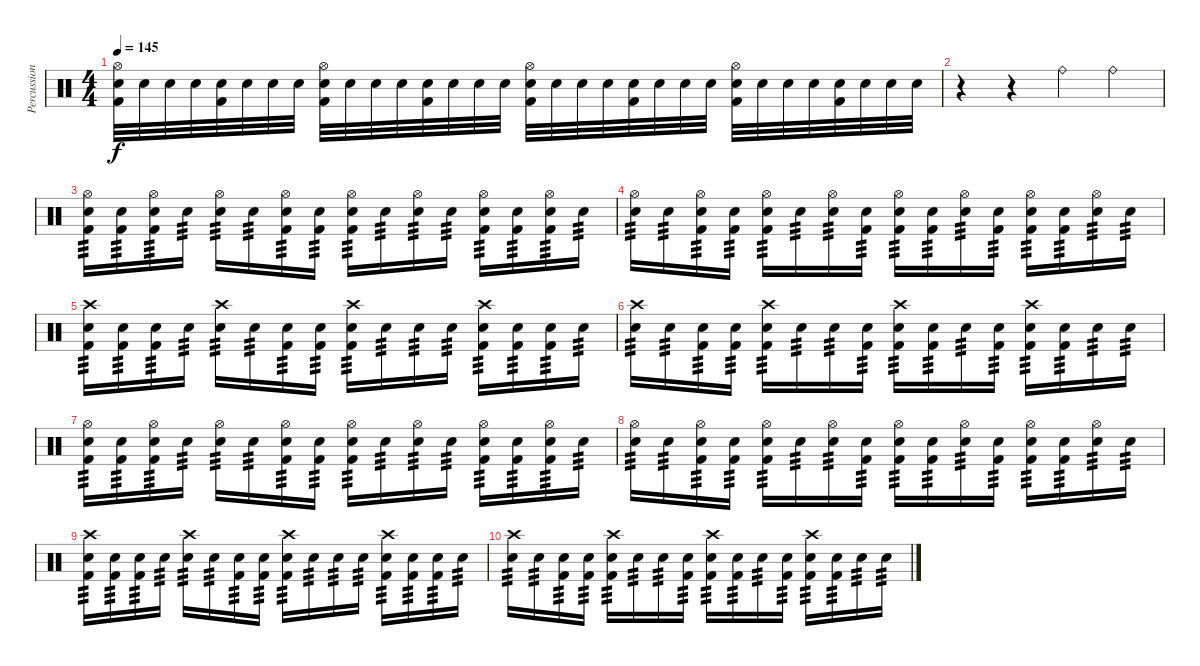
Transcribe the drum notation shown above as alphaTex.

\track ("Percussion" "Percussion") {instrument percussion}
\staff {score}
\articulation defaults
\ts (4 4)
\tempo 145
\clef neutral
\ks c
("Hi-Hat (open)" "Electric Snare (hit)" "Kick (hit) 2").32{dy f} "Electric Snare (hit)".32 "Electric Snare (hit)".32 "Electric Snare (hit)".32 ("Electric Snare (hit)" "Kick (hit) 2").32 "Electric Snare (hit)".32 "Electric Snare (hit)".32 "Electric Snare (hit)".32 ("Hi-Hat (open)" "Electric Snare (hit)" "Kick (hit) 2").32 "Electric Snare (hit)".32 "Electric Snare (hit)".32 "Electric Snare (hit)".32 ("Electric Snare (hit)" "Kick (hit) 2").32 "Electric Snare (hit)".32 "Electric Snare (hit)".32 "Electric Snare (hit)".32 ("Hi-Hat (open)" "Electric Snare (hit)" "Kick (hit) 2").32 "Electric Snare (hit)".32 "Electric Snare (hit)".32 "Electric Snare (hit)".32 ("Electric Snare (hit)" "Kick (hit) 2").32 "Electric Snare (hit)".32 "Electric Snare (hit)".32 "Electric Snare (hit)".32 ("Hi-Hat (open)" "Electric Snare (hit)" "Kick (hit) 2").32 "Electric Snare (hit)".32 "Electric Snare (hit)".32 "Electric Snare (hit)".32 ("Electric Snare (hit)" "Kick (hit) 2").32 "Electric Snare (hit)".32 "Electric Snare (hit)".32 "Electric Snare (hit)".32 |
r.4 r.4 "Ride (bell)".4 "Ride (bell)".4 |
("Hi-Hat (open)" "Electric Snare (hit)" "Kick (hit) 2").16{tp 3} ("Electric Snare (hit)" "Kick (hit) 2").16{tp 3} ("Hi-Hat (open)" "Electric Snare (hit)" "Kick (hit) 2").16{tp 3} "Electric Snare (hit)".16{tp 3} ("Hi-Hat (open)" "Electric Snare (hit)").16{tp 3} "Electric Snare (hit)".16{tp 3} ("Hi-Hat (open)" "Electric Snare (hit)" "Kick (hit) 2").16{tp 3} ("Electric Snare (hit)" "Kick (hit) 2").16{tp 3} ("Hi-Hat (open)" "Electric Snare (hit)" "Kick (hit) 2").16{tp 3} "Electric Snare (hit)".16{tp 3} ("Hi-Hat (open)" "Electric Snare (hit)").16{tp 3} "Electric Snare (hit)".16{tp 3} ("Hi-Hat (open)" "Electric Snare (hit)" "Kick (hit) 2").16{tp 3} ("Electric Snare (hit)" "Kick (hit) 2").16{tp 3} ("Hi-Hat (open)" "Electric Snare (hit)" "Kick (hit) 2").16{tp 3} "Electric Snare (hit)".16{tp 3} |
("Hi-Hat (open)" "Electric Snare (hit)").16{tp 3} "Electric Snare (hit)".16{tp 3} ("Hi-Hat (open)" "Electric Snare (hit)" "Kick (hit) 2").16{tp 3} ("Electric Snare (hit)" "Kick (hit) 2").16{tp 3} ("Hi-Hat (open)" "Electric Snare (hit)" "Kick (hit) 2").16{tp 3} "Electric Snare (hit)".16{tp 3} ("Hi-Hat (open)" "Electric Snare (hit)").16{tp 3} ("Electric Snare (hit)" "Kick (hit) 2").16{tp 3} ("Hi-Hat (open)" "Electric Snare (hit)" "Kick (hit) 2").16{tp 3} ("Electric Snare (hit)" "Kick (hit) 2").16{tp 3} ("Hi-Hat (open)" "Electric Snare (hit)").16{tp 3} ("Electric Snare (hit)" "Kick (hit) 2").16{tp 3} ("Hi-Hat (open)" "Electric Snare (hit)" "Kick (hit) 2").16{tp 3} ("Electric Snare (hit)" "Kick (hit) 2").16{tp 3} ("Hi-Hat (open)" "Electric Snare (hit)").16{tp 3} "Electric Snare (hit)".16{tp 3} |
("Crash high (hit)" "Electric Snare (hit)" "Kick (hit) 2").16{tp 3} ("Electric Snare (hit)" "Kick (hit) 2").16{tp 3} ("Electric Snare (hit)" "Kick (hit) 2").16{tp 3} "Electric Snare (hit)".16{tp 3} ("Crash high (hit)" "Electric Snare (hit)").16{tp 3} "Electric Snare (hit)".16{tp 3} ("Electric Snare (hit)" "Kick (hit) 2").16{tp 3} ("Electric Snare (hit)" "Kick (hit) 2").16{tp 3} ("Crash high (hit)" "Electric Snare (hit)" "Kick (hit) 2").16{tp 3} "Electric Snare (hit)".16{tp 3} "Electric Snare (hit)".16{tp 3} "Electric Snare (hit)".16{tp 3} ("Crash high (hit)" "Electric Snare (hit)" "Kick (hit) 2").16{tp 3} ("Electric Snare (hit)" "Kick (hit) 2").16{tp 3} ("Electric Snare (hit)" "Kick (hit) 2").16{tp 3} "Electric Snare (hit)".16{tp 3} |
("Crash high (hit)" "Electric Snare (hit)").16{tp 3} "Electric Snare (hit)".16{tp 3} ("Electric Snare (hit)" "Kick (hit) 2").16{tp 3} ("Electric Snare (hit)" "Kick (hit) 2").16{tp 3} ("Crash high (hit)" "Electric Snare (hit)" "Kick (hit) 2").16{tp 3} "Electric Snare (hit)".16{tp 3} "Electric Snare (hit)".16{tp 3} ("Electric Snare (hit)" "Kick (hit) 2").16{tp 3} ("Crash high (hit)" "Electric Snare (hit)" "Kick (hit) 2").16{tp 3} ("Electric Snare (hit)" "Kick (hit) 2").16{tp 3} "Electric Snare (hit)".16{tp 3} ("Electric Snare (hit)" "Kick (hit) 2").16{tp 3} ("Crash high (hit)" "Electric Snare (hit)" "Kick (hit) 2").16{tp 3} ("Electric Snare (hit)" "Kick (hit) 2").16{tp 3} "Electric Snare (hit)".16{tp 3} "Electric Snare (hit)".16{tp 3} |
("Hi-Hat (open)" "Electric Snare (hit)" "Kick (hit) 2").16{tp 3} ("Electric Snare (hit)" "Kick (hit) 2").16{tp 3} ("Hi-Hat (open)" "Electric Snare (hit)" "Kick (hit) 2").16{tp 3} "Electric Snare (hit)".16{tp 3} ("Hi-Hat (open)" "Electric Snare (hit)").16{tp 3} "Electric Snare (hit)".16{tp 3} ("Hi-Hat (open)" "Electric Snare (hit)" "Kick (hit) 2").16{tp 3} ("Electric Snare (hit)" "Kick (hit) 2").16{tp 3} ("Hi-Hat (open)" "Electric Snare (hit)" "Kick (hit) 2").16{tp 3} "Electric Snare (hit)".16{tp 3} ("Hi-Hat (open)" "Electric Snare (hit)").16{tp 3} "Electric Snare (hit)".16{tp 3} ("Hi-Hat (open)" "Electric Snare (hit)" "Kick (hit) 2").16{tp 3} ("Electric Snare (hit)" "Kick (hit) 2").16{tp 3} ("Hi-Hat (open)" "Electric Snare (hit)" "Kick (hit) 2").16{tp 3} "Electric Snare (hit)".16{tp 3} |
("Hi-Hat (open)" "Electric Snare (hit)").16{tp 3} "Electric Snare (hit)".16{tp 3} ("Hi-Hat (open)" "Electric Snare (hit)" "Kick (hit) 2").16{tp 3} ("Electric Snare (hit)" "Kick (hit) 2").16{tp 3} ("Hi-Hat (open)" "Electric Snare (hit)" "Kick (hit) 2").16{tp 3} "Electric Snare (hit)".16{tp 3} ("Hi-Hat (open)" "Electric Snare (hit)").16{tp 3} ("Electric Snare (hit)" "Kick (hit) 2").16{tp 3} ("Hi-Hat (open)" "Electric Snare (hit)" "Kick (hit) 2").16{tp 3} ("Electric Snare (hit)" "Kick (hit) 2").16{tp 3} ("Hi-Hat (open)" "Electric Snare (hit)").16{tp 3} ("Electric Snare (hit)" "Kick (hit) 2").16{tp 3} ("Hi-Hat (open)" "Electric Snare (hit)" "Kick (hit) 2").16{tp 3} ("Electric Snare (hit)" "Kick (hit) 2").16{tp 3} ("Hi-Hat (open)" "Electric Snare (hit)").16{tp 3} "Electric Snare (hit)".16{tp 3} |
("Crash high (hit)" "Electric Snare (hit)" "Kick (hit) 2").16{tp 3} ("Electric Snare (hit)" "Kick (hit) 2").16{tp 3} ("Electric Snare (hit)" "Kick (hit) 2").16{tp 3} "Electric Snare (hit)".16{tp 3} ("Crash high (hit)" "Electric Snare (hit)").16{tp 3} "Electric Snare (hit)".16{tp 3} ("Electric Snare (hit)" "Kick (hit) 2").16{tp 3} ("Electric Snare (hit)" "Kick (hit) 2").16{tp 3} ("Crash high (hit)" "Electric Snare (hit)" "Kick (hit) 2").16{tp 3} "Electric Snare (hit)".16{tp 3} "Electric Snare (hit)".16{tp 3} "Electric Snare (hit)".16{tp 3} ("Crash high (hit)" "Electric Snare (hit)" "Kick (hit) 2").16{tp 3} ("Electric Snare (hit)" "Kick (hit) 2").16{tp 3} ("Electric Snare (hit)" "Kick (hit) 2").16{tp 3} "Electric Snare (hit)".16{tp 3} |
("Crash high (hit)" "Electric Snare (hit)").16{tp 3} "Electric Snare (hit)".16{tp 3} ("Electric Snare (hit)" "Kick (hit) 2").16{tp 3} ("Electric Snare (hit)" "Kick (hit) 2").16{tp 3} ("Crash high (hit)" "Electric Snare (hit)" "Kick (hit) 2").16{tp 3} "Electric Snare (hit)".16{tp 3} "Electric Snare (hit)".16{tp 3} ("Electric Snare (hit)" "Kick (hit) 2").16{tp 3} ("Crash high (hit)" "Electric Snare (hit)" "Kick (hit) 2").16{tp 3} ("Electric Snare (hit)" "Kick (hit) 2").16{tp 3} "Electric Snare (hit)".16{tp 3} ("Electric Snare (hit)" "Kick (hit) 2").16{tp 3} ("Crash high (hit)" "Electric Snare (hit)" "Kick (hit) 2").16{tp 3} ("Electric Snare (hit)" "Kick (hit) 2").16{tp 3} "Electric Snare (hit)".16{tp 3} "Electric Snare (hit)".16{tp 3}
